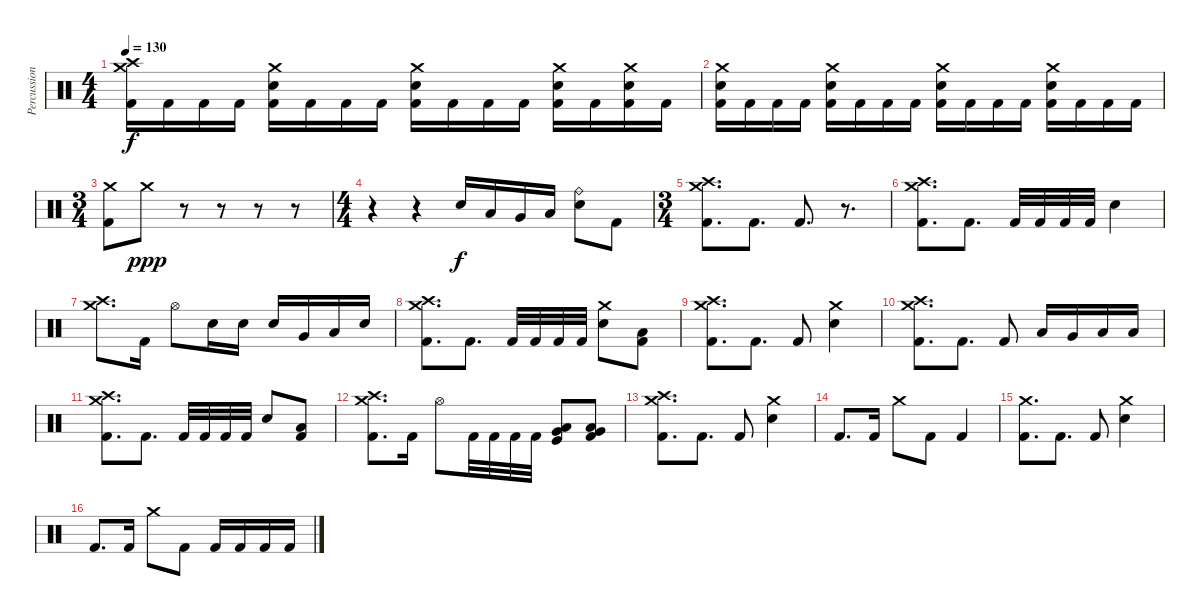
\track ("Percussion" "Percussion") {instrument percussion}
\staff {score}
\articulation defaults
\ts (4 4)
\tempo 130
\clef neutral
\ks c
("Crash medium (hit)" "Crash high (hit)" "Kick (hit) 2").16{dy f} "Kick (hit) 2".16 "Kick (hit) 2".16 "Kick (hit) 2".16 ("Crash medium (hit)" "Electric Snare (hit)" "Kick (hit) 2").16 "Kick (hit) 2".16 "Kick (hit) 2".16 "Kick (hit) 2".16 ("Crash medium (hit)" "Electric Snare (hit)" "Kick (hit) 2").16 "Kick (hit) 2".16 "Kick (hit) 2".16 "Kick (hit) 2".16 ("Crash medium (hit)" "Electric Snare (hit)" "Kick (hit) 2").16 "Kick (hit) 2".16 ("Crash medium (hit)" "Electric Snare (hit)" "Kick (hit) 2").16 "Kick (hit) 2".16 |
("Crash medium (hit)" "Electric Snare (hit)" "Kick (hit) 2").16 "Kick (hit) 2".16 "Kick (hit) 2".16 "Kick (hit) 2".16 ("Crash medium (hit)" "Electric Snare (hit)" "Kick (hit) 2").16 "Kick (hit) 2".16 "Kick (hit) 2".16 "Kick (hit) 2".16 ("Crash medium (hit)" "Electric Snare (hit)" "Kick (hit) 2").16 "Kick (hit) 2".16 "Kick (hit) 2".16 "Kick (hit) 2".16 ("Crash medium (hit)" "Electric Snare (hit)" "Kick (hit) 2").16 "Kick (hit) 2".16 "Kick (hit) 2".16 "Kick (hit) 2".16 |
\ts (3 4)
("Crash medium (hit)" "Kick (hit) 2").8 "Crash medium (hit)".8{dy ppp} r.8 r.8 r.8 r.8 |
\ts (4 4)
r.4 r.4 "Electric Snare (hit)".16{dy f} "Low Tom (hit)".16 "Very Low Tom (hit)".16 "Low Floor Tom (hit)".16 ("Ride (bell)" "Electric Snare (hit)").8 "Kick (hit) 2".8 |
\ts (3 4)
("Crash medium (hit)" "Crash high (hit)" "Kick (hit) 2").8{d} "Kick (hit) 2".8{d} "Kick (hit) 2".8{d} r.8{d} |
("Crash medium (hit)" "Crash high (hit)" "Kick (hit) 2").8{d} "Kick (hit) 2".8{d} "Kick (hit) 2".32 "Kick (hit) 2".32 "Kick (hit) 2".32 "Kick (hit) 2".32 "Electric Snare (hit)".4 |
("Crash medium (hit)" "Crash high (hit)").8{d} "Kick (hit) 2".16 "Hi-Hat (open)".8 "Electric Snare (hit)".16 "Electric Snare (hit)".16 "Electric Snare (hit)".16 "Very Low Tom (hit)".16 "Low Floor Tom (hit)".16 "Electric Snare (hit)".16 |
("Crash medium (hit)" "Crash high (hit)" "Kick (hit) 2").8{d} "Kick (hit) 2".8{d} "Kick (hit) 2".32 "Kick (hit) 2".32 "Kick (hit) 2".32 "Kick (hit) 2".32 ("Crash medium (hit)" "Electric Snare (hit)").8 ("Low Tom (hit)" "Kick (hit) 2").8 |
("Crash medium (hit)" "Crash high (hit)" "Kick (hit) 2").8{d} "Kick (hit) 2".8{d} "Kick (hit) 2".8 ("Crash medium (hit)" "Electric Snare (hit)").4 |
("Crash medium (hit)" "Crash high (hit)" "Kick (hit) 2").8{d} "Kick (hit) 2".8{d} "Kick (hit) 2".8 "Low Tom (hit)".16 "Very Low Tom (hit)".16 "Low Floor Tom (hit)".16 "Low Tom (hit)".16 |
("Crash medium (hit)" "Crash high (hit)" "Kick (hit) 2").8{d} "Kick (hit) 2".8{d} "Kick (hit) 2".32 "Kick (hit) 2".32 "Kick (hit) 2".32 "Kick (hit) 2".32 "Electric Snare (hit)".8 ("Low Tom (hit)" "Kick (hit) 2").8 |
("Crash medium (hit)" "Crash high (hit)" "Kick (hit) 2").8{d} "Kick (hit) 2".16 "Hi-Hat (open)".8 "Kick (hit) 2".32 "Kick (hit) 2".32 "Kick (hit) 2".32 "Kick (hit) 2".32 ("Low Tom (hit)" "Very Low Tom (hit)" "Kick (hit)").8 ("Low Tom (hit)" "Very Low Tom (hit)" "Kick (hit) 2").8 |
("Crash medium (hit)" "Crash high (hit)" "Kick (hit) 2").8{d} "Kick (hit) 2".8{d} "Kick (hit) 2".8 ("Crash medium (hit)" "Electric Snare (hit)").4 |
"Kick (hit) 2".8{d} "Kick (hit) 2".16 "Crash medium (hit)".8 "Kick (hit) 2".8 "Kick (hit) 2".4 |
("Crash medium (hit)" "Kick (hit) 2").8{d} "Kick (hit) 2".8{d} "Kick (hit) 2".8 ("Crash medium (hit)" "Electric Snare (hit)").4 |
"Kick (hit) 2".8{d} "Kick (hit) 2".16 "Crash medium (hit)".8 "Kick (hit) 2".8 "Kick (hit) 2".16 "Kick (hit) 2".16 "Kick (hit) 2".16 "Kick (hit) 2".16
